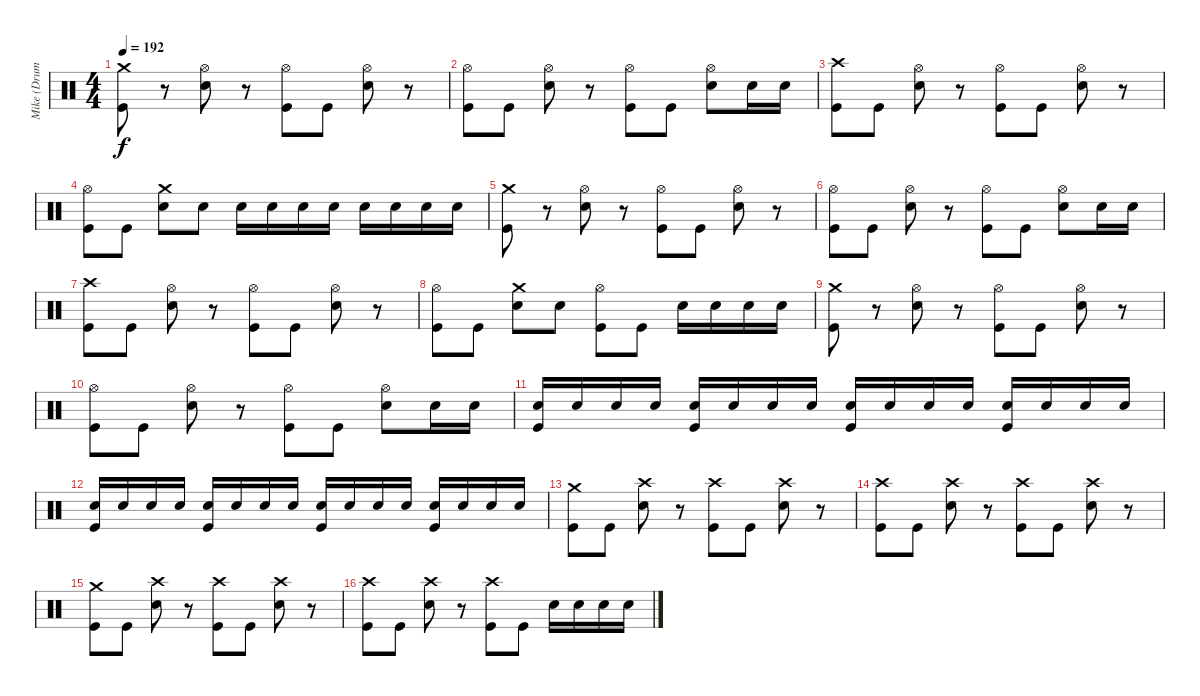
\track ("Mike (Drums)" "Mike (Drum") {instrument percussion}
\staff {score}
\articulation defaults
\ts (4 4)
\tempo 192
\clef neutral
\ks c
("Crash medium (hit)" "Kick (hit)").8{dy f} r.8 ("Hi-Hat (open)" "Snare (hit) 2").8 r.8 ("Hi-Hat (open)" "Kick (hit)").8 "Kick (hit)".8 ("Hi-Hat (open)" "Snare (hit) 2").8 r.8 |
("Hi-Hat (open)" "Kick (hit)").8 "Kick (hit)".8 ("Hi-Hat (open)" "Snare (hit) 2").8 r.8 ("Hi-Hat (open)" "Kick (hit)").8 "Kick (hit)".8 ("Hi-Hat (open)" "Snare (hit) 2").8 "Snare (hit) 2".16 "Snare (hit) 2".16 |
("Crash high (hit)" "Kick (hit)").8 "Kick (hit)".8 ("Hi-Hat (open)" "Snare (hit) 2").8 r.8 ("Hi-Hat (open)" "Kick (hit)").8 "Kick (hit)".8 ("Hi-Hat (open)" "Snare (hit) 2").8 r.8 |
("Hi-Hat (open)" "Kick (hit)").8 "Kick (hit)".8 ("Crash medium (hit)" "Snare (hit) 2").8 "Snare (hit) 2".8 "Snare (hit) 2".16 "Snare (hit) 2".16 "Snare (hit) 2".16 "Snare (hit) 2".16 "Snare (hit) 2".16 "Snare (hit) 2".16 "Snare (hit) 2".16 "Snare (hit) 2".16 |
("Crash medium (hit)" "Kick (hit)").8 r.8 ("Hi-Hat (open)" "Snare (hit) 2").8 r.8 ("Hi-Hat (open)" "Kick (hit)").8 "Kick (hit)".8 ("Hi-Hat (open)" "Snare (hit) 2").8 r.8 |
("Hi-Hat (open)" "Kick (hit)").8 "Kick (hit)".8 ("Hi-Hat (open)" "Snare (hit) 2").8 r.8 ("Hi-Hat (open)" "Kick (hit)").8 "Kick (hit)".8 ("Hi-Hat (open)" "Snare (hit) 2").8 "Snare (hit) 2".16 "Snare (hit) 2".16 |
("Crash high (hit)" "Kick (hit)").8 "Kick (hit)".8 ("Hi-Hat (open)" "Snare (hit) 2").8 r.8 ("Hi-Hat (open)" "Kick (hit)").8 "Kick (hit)".8 ("Hi-Hat (open)" "Snare (hit) 2").8 r.8 |
("Hi-Hat (open)" "Kick (hit)").8 "Kick (hit)".8 ("Crash medium (hit)" "Snare (hit) 2").8 "Snare (hit) 2".8 ("Hi-Hat (open)" "Kick (hit)").8 "Kick (hit)".8 "Snare (hit) 2".16 "Snare (hit) 2".16 "Snare (hit) 2".16 "Snare (hit) 2".16 |
("Crash medium (hit)" "Kick (hit)").8 r.8 ("Hi-Hat (open)" "Snare (hit) 2").8 r.8 ("Hi-Hat (open)" "Kick (hit)").8 "Kick (hit)".8 ("Hi-Hat (open)" "Snare (hit) 2").8 r.8 |
("Hi-Hat (open)" "Kick (hit)").8 "Kick (hit)".8 ("Hi-Hat (open)" "Snare (hit) 2").8 r.8 ("Hi-Hat (open)" "Kick (hit)").8 "Kick (hit)".8 ("Hi-Hat (open)" "Snare (hit) 2").8 "Snare (hit) 2".16 "Snare (hit) 2".16 |
("Snare (hit) 2" "Kick (hit)").16 "Snare (hit) 2".16 "Snare (hit) 2".16 "Snare (hit) 2".16 ("Snare (hit) 2" "Kick (hit)").16 "Snare (hit) 2".16 "Snare (hit) 2".16 "Snare (hit) 2".16 ("Snare (hit) 2" "Kick (hit)").16 "Snare (hit) 2".16 "Snare (hit) 2".16 "Snare (hit) 2".16 ("Snare (hit) 2" "Kick (hit)").16 "Snare (hit) 2".16 "Snare (hit) 2".16 "Snare (hit) 2".16 |
("Snare (hit) 2" "Kick (hit)").16 "Snare (hit) 2".16 "Snare (hit) 2".16 "Snare (hit) 2".16 ("Snare (hit) 2" "Kick (hit)").16 "Snare (hit) 2".16 "Snare (hit) 2".16 "Snare (hit) 2".16 ("Snare (hit) 2" "Kick (hit)").16 "Snare (hit) 2".16 "Snare (hit) 2".16 "Snare (hit) 2".16 ("Snare (hit) 2" "Kick (hit)").16 "Snare (hit) 2".16 "Snare (hit) 2".16 "Snare (hit) 2".16 |
("Crash medium (hit)" "Kick (hit)").8 "Kick (hit)".8 ("Crash high (hit)" "Snare (hit) 2").8 r.8 ("Crash high (hit)" "Kick (hit)").8 "Kick (hit)".8 ("Crash high (hit)" "Snare (hit) 2").8 r.8 |
("Crash high (hit)" "Kick (hit)").8 "Kick (hit)".8 ("Crash high (hit)" "Snare (hit) 2").8 r.8 ("Crash high (hit)" "Kick (hit)").8 "Kick (hit)".8 ("Crash high (hit)" "Snare (hit) 2").8 r.8 |
("Crash medium (hit)" "Kick (hit)").8 "Kick (hit)".8 ("Crash high (hit)" "Snare (hit) 2").8 r.8 ("Crash high (hit)" "Kick (hit)").8 "Kick (hit)".8 ("Crash high (hit)" "Snare (hit) 2").8 r.8 |
("Crash high (hit)" "Kick (hit)").8 "Kick (hit)".8 ("Crash high (hit)" "Snare (hit) 2").8 r.8 ("Crash high (hit)" "Kick (hit)").8 "Kick (hit)".8 "Snare (hit) 2".16 "Snare (hit) 2".16 "Snare (hit) 2".16 "Snare (hit) 2".16
